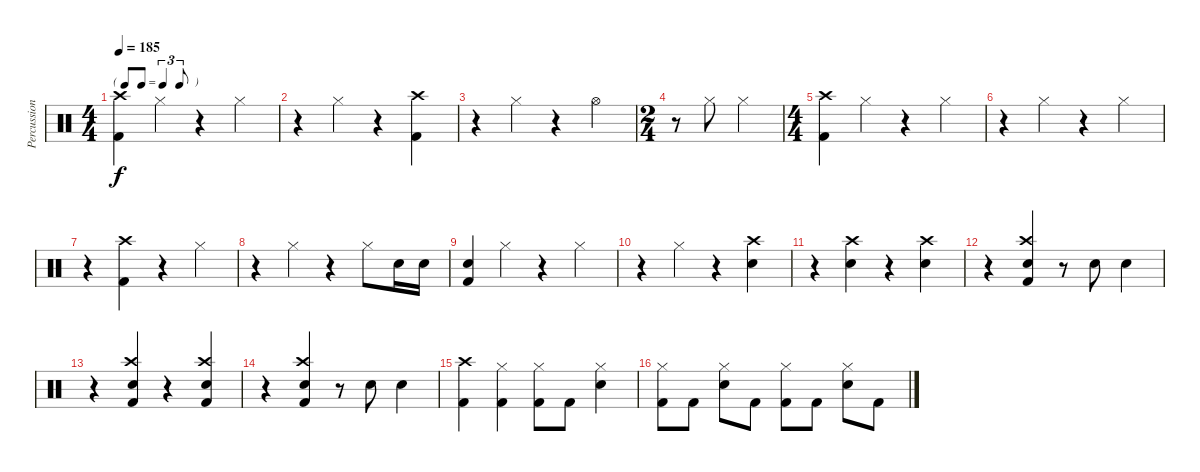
\track ("Percussion" "Percussion") {instrument percussion}
\staff {score}
\articulation defaults
\ts (4 4)
\tf triplet8th
\tempo 185
\clef neutral
\ks c
("Kick (hit) 2" "Crash high (hit)").4{dy f} "Hi-Hat (closed)".4 r.4 "Hi-Hat (closed)".4 |
r.4 "Hi-Hat (closed)".4 r.4 ("Kick (hit) 2" "Crash high (hit)").4 |
r.4 "Hi-Hat (closed)".4 r.4 "Hi-Hat (open)".4 |
\ts (2 4)
r.8 "Hi-Hat (closed)".8 "Hi-Hat (closed)".4 |
\ts (4 4)
("Kick (hit) 2" "Crash high (hit)").4 "Hi-Hat (closed)".4 r.4 "Hi-Hat (closed)".4 |
r.4 "Hi-Hat (closed)".4 r.4 "Hi-Hat (closed)".4 |
r.4 ("Kick (hit) 2" "Crash high (hit)").4 r.4 "Hi-Hat (closed)".4 |
r.4 "Hi-Hat (closed)".4 r.4 "Hi-Hat (closed)".8 "Snare (hit) 2".16 "Snare (hit) 2".16 |
("Kick (hit) 2" "Snare (hit) 2").4 "Hi-Hat (closed)".4 r.4 "Hi-Hat (closed)".4 |
r.4 "Hi-Hat (closed)".4 r.4 ("Snare (hit) 2" "Crash high (hit)").4 |
r.4 ("Snare (hit) 2" "Crash high (hit)").4 r.4 ("Snare (hit) 2" "Crash high (hit)").4 |
r.4 ("Kick (hit) 2" "Snare (hit) 2" "Crash high (hit)").4 r.8 "Snare (hit) 2".8 "Snare (hit) 2".4 |
r.4 ("Kick (hit) 2" "Snare (hit) 2" "Crash high (hit)").4 r.4 ("Kick (hit) 2" "Snare (hit) 2" "Crash high (hit)").4 |
r.4 ("Kick (hit) 2" "Snare (hit) 2" "Crash high (hit)").4 r.8 "Snare (hit) 2".8 "Snare (hit) 2".4 |
("Kick (hit) 2" "Crash high (hit)").4 ("Kick (hit) 2" "Hi-Hat (closed)").4 ("Kick (hit) 2" "Hi-Hat (closed)").8 "Kick (hit) 2".8 ("Snare (hit) 2" "Hi-Hat (closed)").4 |
("Kick (hit) 2" "Hi-Hat (closed)").8 "Kick (hit) 2".8 ("Snare (hit) 2" "Hi-Hat (closed)").8 "Kick (hit) 2".8 ("Kick (hit) 2" "Hi-Hat (closed)").8 "Kick (hit) 2".8 ("Snare (hit) 2" "Hi-Hat (closed)").8 "Kick (hit) 2".8
